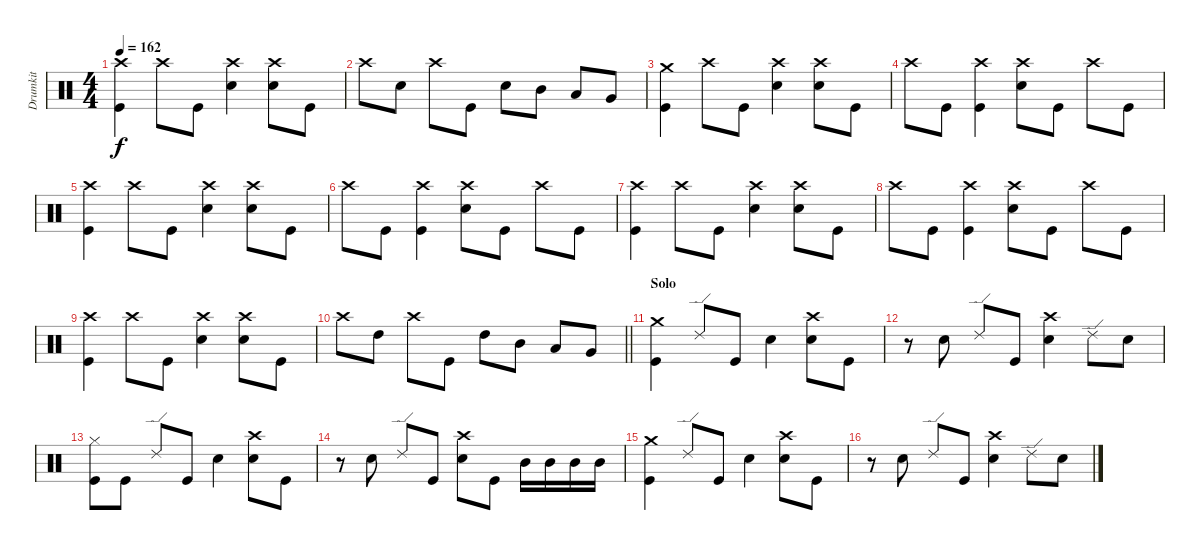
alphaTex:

\track ("Drumkit" "Drumkit") {instrument percussion}
\staff {score}
\articulation defaults
\ts (4 4)
\tempo 162
\clef neutral
\ks c
("Kick (hit)" "Crash high (hit)").4{dy f} "Crash high (hit)".8 "Kick (hit)".8 ("Snare (hit) 2" "Crash high (hit)").4 ("Snare (hit) 2" "Crash high (hit)").8 "Kick (hit)".8 |
"Crash high (hit)".8 "Snare (hit) 2".8 "Crash high (hit)".8 "Kick (hit)".8 "Snare (hit) 2".8 "Mid Tom (hit)".8 "Low Tom (hit)".8 "Very Low Tom (hit)".8 |
("Kick (hit)" "Crash medium (hit)").4 "Crash high (hit)".8 "Kick (hit)".8 ("Snare (hit) 2" "Crash high (hit)").4 ("Snare (hit) 2" "Crash high (hit)").8 "Kick (hit)".8 |
"Crash high (hit)".8 "Kick (hit)".8 ("Kick (hit)" "Crash high (hit)").4 ("Snare (hit) 2" "Crash high (hit)").8 "Kick (hit)".8 "Crash high (hit)".8 "Kick (hit)".8 |
("Kick (hit)" "Crash high (hit)").4 "Crash high (hit)".8 "Kick (hit)".8 ("Snare (hit) 2" "Crash high (hit)").4 ("Snare (hit) 2" "Crash high (hit)").8 "Kick (hit)".8 |
"Crash high (hit)".8 "Kick (hit)".8 ("Kick (hit)" "Crash high (hit)").4 ("Snare (hit) 2" "Crash high (hit)").8 "Kick (hit)".8 "Crash high (hit)".8 "Kick (hit)".8 |
("Kick (hit)" "Crash high (hit)").4 "Crash high (hit)".8 "Kick (hit)".8 ("Snare (hit) 2" "Crash high (hit)").4 ("Snare (hit) 2" "Crash high (hit)").8 "Kick (hit)".8 |
"Crash high (hit)".8 "Kick (hit)".8 ("Kick (hit)" "Crash high (hit)").4 ("Snare (hit) 2" "Crash high (hit)").8 "Kick (hit)".8 "Crash high (hit)".8 "Kick (hit)".8 |
("Kick (hit)" "Crash high (hit)").4 "Crash high (hit)".8 "Kick (hit)".8 ("Snare (hit) 2" "Crash high (hit)").4 ("Snare (hit) 2" "Crash high (hit)").8 "Kick (hit)".8 |
\barLineRight lightlight "Crash high (hit)".8 "High Tom (hit)".8 "Crash high (hit)".8 "Kick (hit)".8 "High Tom (hit)".8 "Mid Tom (hit)".8 "Low Tom (hit)".8 "Very Low Tom (hit)".8
|
\section ("" "Solo")
("Kick (hit)" "Crash medium (hit)").4 "Ride (edge) 2".8 "Kick (hit)".8 "Snare (hit) 2".4 ("Snare (hit) 2" "Crash high (hit)").8 "Kick (hit)".8 |
r.8 "Snare (hit) 2".8 "Ride (edge) 2".8 "Kick (hit)".8 ("Snare (hit) 2" "Crash high (hit)").4 "Ride (edge) 2".8 "Snare (hit) 2".8 |
("Kick (hit)" "Hi-Hat (closed)").8 "Kick (hit)".8 "Ride (edge) 2".8 "Kick (hit)".8 "Snare (hit) 2".4 ("Snare (hit) 2" "Crash high (hit)").8 "Kick (hit)".8 |
r.8 "Snare (hit) 2".8 "Ride (edge) 2".8 "Kick (hit)".8 ("Snare (hit) 2" "Crash high (hit)").8 "Kick (hit)".8 "Mid Tom (hit)".16 "Mid Tom (hit)".16 "Mid Tom (hit)".16 "Mid Tom (hit)".16 |
("Kick (hit)" "Crash medium (hit)").4 "Ride (edge) 2".8 "Kick (hit)".8 "Snare (hit) 2".4 ("Snare (hit) 2" "Crash high (hit)").8 "Kick (hit)".8 |
r.8 "Snare (hit) 2".8 "Ride (edge) 2".8 "Kick (hit)".8 ("Snare (hit) 2" "Crash high (hit)").4 "Ride (edge) 2".8 "Snare (hit) 2".8
